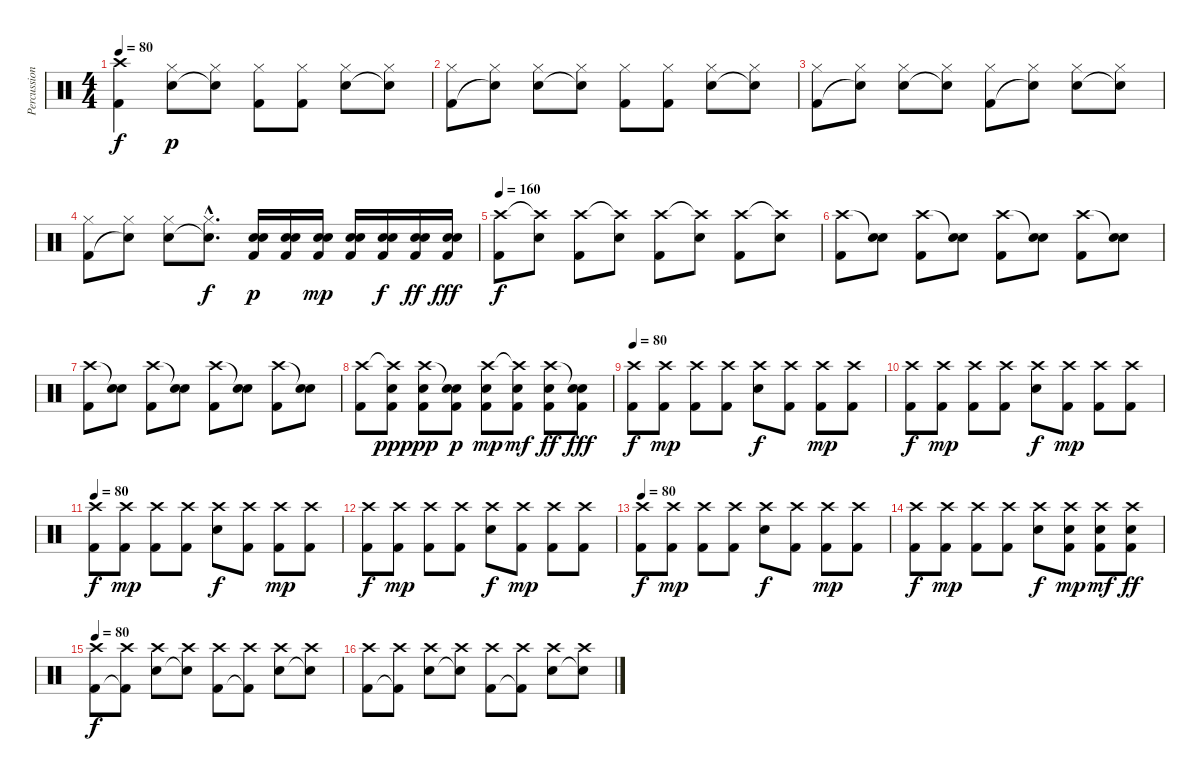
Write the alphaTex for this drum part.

\track ("Percussions" "Percussion") {instrument percussion}
\staff {score}
\articulation defaults
\ts (4 4)
\tempo 80
\clef neutral
\ks c
("Crash high (hit)" "Kick (hit) 2").4{dy f} ("Hi-Hat (closed)" "Electric Snare (hit)").8{dy p} ("Hi-Hat (closed)" "Snare (hit)"{t}).8 ("Hi-Hat (closed)" "Kick (hit) 2").8 ("Hi-Hat (closed)" "Kick (hit) 2").8 ("Hi-Hat (closed)" "Electric Snare (hit)").8 ("Hi-Hat (closed)" "Snare (hit)"{t}).8 |
("Hi-Hat (closed)" "Kick (hit) 2").8 ("Hi-Hat (closed)" "Snare (hit)"{t}).8 ("Hi-Hat (closed)" "Electric Snare (hit)").8 ("Hi-Hat (closed)" "Snare (hit)"{t}).8 ("Hi-Hat (closed)" "Kick (hit) 2").8 ("Hi-Hat (closed)" "Kick (hit) 2").8 ("Hi-Hat (closed)" "Electric Snare (hit)").8 ("Hi-Hat (closed)" "Snare (hit)"{t}).8 |
("Hi-Hat (closed)" "Kick (hit) 2").8 ("Hi-Hat (closed)" "Snare (hit)"{t}).8 ("Hi-Hat (closed)" "Electric Snare (hit)").8 ("Hi-Hat (closed)" "Snare (hit)"{t}).8 ("Hi-Hat (closed)" "Kick (hit) 2").8 ("Hi-Hat (closed)" "Snare (hit)"{t}).8 ("Hi-Hat (closed)" "Electric Snare (hit)").8 ("Hi-Hat (closed)" "Snare (hit)"{t}).8 |
("Hi-Hat (closed)" "Kick (hit) 2").8 ("Hi-Hat (closed)" "Snare (hit)"{t}).8 ("Hi-Hat (closed)" "Electric Snare (hit)").8 ("Hi-Hat (closed)"{hac} "Snare (hit)"{hac t}).8{d dy f} ("Electric Snare (hit)" "Electric Snare (hit)" "Kick (hit) 2").16{dy p} ("Electric Snare (hit)" "Electric Snare (hit)" "Kick (hit) 2").16 ("Electric Snare (hit)" "Electric Snare (hit)" "Kick (hit) 2").16{dy mp} ("Electric Snare (hit)" "Electric Snare (hit)" "Kick (hit) 2").16 ("Electric Snare (hit)" "Electric Snare (hit)" "Kick (hit) 2").16{dy f} ("Electric Snare (hit)" "Electric Snare (hit)" "Kick (hit) 2").16{dy ff} ("Electric Snare (hit)" "Electric Snare (hit)" "Kick (hit) 2").16{dy fff} |
\tempo 160
("Crash high (hit)" "Kick (hit) 2").8{dy f} ("Crash high (hit)"{t} "Electric Snare (hit)").8 ("Crash high (hit)" "Kick (hit) 2").8 ("Crash high (hit)"{t} "Electric Snare (hit)").8 ("Crash high (hit)" "Kick (hit) 2").8 ("Crash high (hit)"{t} "Electric Snare (hit)").8 ("Crash high (hit)" "Kick (hit) 2").8 ("Crash high (hit)"{t} "Electric Snare (hit)").8 |
("Crash high (hit)" "Kick (hit) 2").8 ("Snare (hit)"{t} "Electric Snare (hit)").8 ("Crash high (hit)" "Kick (hit) 2").8 ("Snare (hit)"{t} "Electric Snare (hit)").8 ("Crash high (hit)" "Kick (hit) 2").8 ("Snare (hit)"{t} "Electric Snare (hit)").8 ("Crash high (hit)" "Kick (hit) 2").8 ("Snare (hit)"{t} "Electric Snare (hit)").8 |
("Crash high (hit)" "Kick (hit) 2").8 ("Snare (hit)"{t} "Electric Snare (hit)").8 ("Crash high (hit)" "Kick (hit) 2").8 ("Snare (hit)"{t} "Electric Snare (hit)").8 ("Crash high (hit)" "Kick (hit) 2").8 ("Snare (hit)"{t} "Electric Snare (hit)").8 ("Crash high (hit)" "Kick (hit) 2").8 ("Snare (hit)"{t} "Electric Snare (hit)").8 |
("Crash high (hit)" "Kick (hit) 2").8 ("Crash high (hit)"{t} "Electric Snare (hit)" "Kick (hit) 2").8{dy ppp} ("Crash high (hit)" "Electric Snare (hit)" "Kick (hit) 2").8{dy pp} ("Snare (hit)"{t} "Electric Snare (hit)" "Kick (hit) 2").8{dy p} ("Crash high (hit)" "Electric Snare (hit)" "Kick (hit) 2").8{dy mp} ("Crash high (hit)"{t} "Electric Snare (hit)" "Kick (hit) 2").8{dy mf} ("Crash high (hit)" "Electric Snare (hit)" "Kick (hit) 2").8{dy ff} ("Snare (hit)"{t} "Electric Snare (hit)" "Kick (hit) 2").8{dy fff} |
\tempo 80
("Crash high (hit)" "Kick (hit) 2").8{dy f} ("Crash high (hit)" "Kick (hit) 2").8{dy mp} ("Crash high (hit)" "Kick (hit) 2").8 ("Crash high (hit)" "Kick (hit) 2").8 ("Crash high (hit)" "Electric Snare (hit)").8{dy f} ("Crash high (hit)" "Kick (hit) 2").8 ("Crash high (hit)" "Kick (hit) 2").8{dy mp} ("Crash high (hit)" "Kick (hit) 2").8 |
("Crash high (hit)" "Kick (hit) 2").8{dy f} ("Crash high (hit)" "Kick (hit) 2").8{dy mp} ("Crash high (hit)" "Kick (hit) 2").8 ("Crash high (hit)" "Kick (hit) 2").8 ("Crash high (hit)" "Electric Snare (hit)").8{dy f} ("Crash high (hit)" "Kick (hit) 2").8{dy mp} ("Crash high (hit)" "Kick (hit) 2").8 ("Crash high (hit)" "Kick (hit) 2").8 |
\tempo 80
("Crash high (hit)" "Kick (hit) 2").8{dy f} ("Crash high (hit)" "Kick (hit) 2").8{dy mp} ("Crash high (hit)" "Kick (hit) 2").8 ("Crash high (hit)" "Kick (hit) 2").8 ("Crash high (hit)" "Electric Snare (hit)").8{dy f} ("Crash high (hit)" "Kick (hit) 2").8 ("Crash high (hit)" "Kick (hit) 2").8{dy mp} ("Crash high (hit)" "Kick (hit) 2").8 |
("Crash high (hit)" "Kick (hit) 2").8{dy f} ("Crash high (hit)" "Kick (hit) 2").8{dy mp} ("Crash high (hit)" "Kick (hit) 2").8 ("Crash high (hit)" "Kick (hit) 2").8 ("Crash high (hit)" "Electric Snare (hit)").8{dy f} ("Crash high (hit)" "Kick (hit) 2").8{dy mp} ("Crash high (hit)" "Kick (hit) 2").8 ("Crash high (hit)" "Kick (hit) 2").8 |
\tempo 80
("Crash high (hit)" "Kick (hit) 2").8{dy f} ("Crash high (hit)" "Kick (hit) 2").8{dy mp} ("Crash high (hit)" "Kick (hit) 2").8 ("Crash high (hit)" "Kick (hit) 2").8 ("Crash high (hit)" "Electric Snare (hit)").8{dy f} ("Crash high (hit)" "Kick (hit) 2").8 ("Crash high (hit)" "Kick (hit) 2").8{dy mp} ("Crash high (hit)" "Kick (hit) 2").8 |
("Crash high (hit)" "Kick (hit) 2").8{dy f} ("Crash high (hit)" "Kick (hit) 2").8{dy mp} ("Crash high (hit)" "Kick (hit) 2").8 ("Crash high (hit)" "Kick (hit) 2").8 ("Crash high (hit)" "Electric Snare (hit)").8{dy f} ("Crash high (hit)" "Electric Snare (hit)" "Kick (hit) 2").8{dy mp} ("Crash high (hit)" "Electric Snare (hit)" "Kick (hit) 2").8{dy mf} ("Crash high (hit)" "Electric Snare (hit)" "Kick (hit) 2").8{dy ff} |
\tempo 80
("Crash high (hit)" "Kick (hit) 2").8{dy f} ("Crash high (hit)" "Kick (hit) 2"{t}).8 ("Crash high (hit)" "Electric Snare (hit)").8 ("Crash high (hit)" "Snare (hit)"{t}).8 ("Crash high (hit)" "Kick (hit) 2").8 ("Crash high (hit)" "Kick (hit) 2"{t}).8 ("Crash high (hit)" "Electric Snare (hit)").8 ("Crash high (hit)" "Snare (hit)"{t}).8 |
("Crash high (hit)" "Kick (hit) 2").8 ("Crash high (hit)" "Kick (hit) 2"{t}).8 ("Crash high (hit)" "Electric Snare (hit)").8 ("Crash high (hit)" "Snare (hit)"{t}).8 ("Crash high (hit)" "Kick (hit) 2").8 ("Crash high (hit)" "Kick (hit) 2"{t}).8 ("Crash high (hit)" "Electric Snare (hit)").8 ("Crash high (hit)" "Electric Snare (hit)"{t}).8
